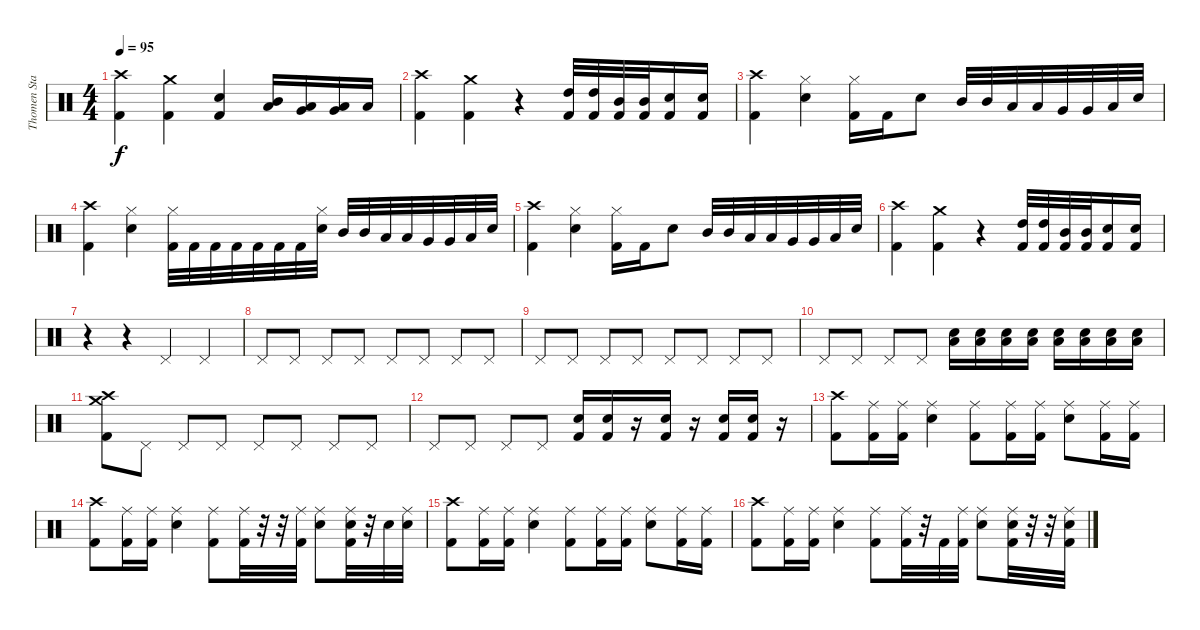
\track ("Thomen Stauch" "Thomen Sta") {instrument percussion}
\staff {score}
\articulation defaults
\ts (4 4)
\tempo 95
\clef neutral
\ks c
("Crash high (hit)" "Kick (hit) 2").4{dy f} ("Crash medium (hit)" "Kick (hit) 2").4 ("Snare (hit) 2" "Kick (hit) 2").4 ("Mid Tom (hit)" "Low Tom (hit)").16 ("Low Tom (hit)" "Very Low Tom (hit)").16 ("Very Low Tom (hit)" "Low Floor Tom (hit)").16 "Low Floor Tom (hit)".16 |
("Crash high (hit)" "Kick (hit) 2").4 ("Crash medium (hit)" "Kick (hit) 2").4 r.4 ("High Tom (hit)" "Kick (hit) 2").32 ("High Tom (hit)" "Kick (hit) 2").32 ("Mid Tom (hit)" "Kick (hit) 2").32 ("Mid Tom (hit)" "Kick (hit) 2").32 ("Snare (hit) 2" "Kick (hit) 2").16 ("Snare (hit) 2" "Kick (hit) 2").16 |
("Crash high (hit)" "Kick (hit) 2").4 ("Hi-Hat (closed)" "Snare (hit) 2").4 ("Hi-Hat (closed)" "Kick (hit) 2").16 "Kick (hit) 2".16 "Snare (hit) 2".8 "Mid Tom (hit)".32 "Mid Tom (hit)".32 "Low Tom (hit)".32 "Low Tom (hit)".32 "Very Low Tom (hit)".32 "Very Low Tom (hit)".32 "Low Floor Tom (hit)".32 "Snare (hit) 2".32 |
("Crash high (hit)" "Kick (hit) 2").4 ("Hi-Hat (closed)" "Snare (hit) 2").4 ("Hi-Hat (closed)" "Kick (hit) 2").32 "Kick (hit) 2".32 "Kick (hit) 2".32 "Kick (hit) 2".32 "Kick (hit) 2".32 "Kick (hit) 2".32 "Kick (hit) 2".32 ("Hi-Hat (closed)" "Snare (hit) 2").32 "Mid Tom (hit)".32 "Mid Tom (hit)".32 "Low Tom (hit)".32 "Low Tom (hit)".32 "Very Low Tom (hit)".32 "Very Low Tom (hit)".32 "Low Floor Tom (hit)".32 "Snare (hit) 2".32 |
("Crash high (hit)" "Kick (hit) 2").4 ("Hi-Hat (closed)" "Snare (hit) 2").4 ("Hi-Hat (closed)" "Kick (hit) 2").16 "Kick (hit) 2".16 "Snare (hit) 2".8 "Mid Tom (hit)".32 "Mid Tom (hit)".32 "Low Tom (hit)".32 "Low Tom (hit)".32 "Very Low Tom (hit)".32 "Very Low Tom (hit)".32 "Low Floor Tom (hit)".32 "Snare (hit) 2".32 |
("Crash high (hit)" "Kick (hit) 2").4 ("Crash medium (hit)" "Kick (hit) 2").4 r.4 ("High Tom (hit)" "Kick (hit) 2").32 ("High Tom (hit)" "Kick (hit) 2").32 ("Mid Tom (hit)" "Kick (hit) 2").32 ("Mid Tom (hit)" "Kick (hit) 2").32 ("Snare (hit) 2" "Kick (hit) 2").16 ("Snare (hit) 2" "Kick (hit) 2").16 |
r.4 r.4 "Pedal Hi-Hat (hit)".4 "Pedal Hi-Hat (hit)".4 |
"Pedal Hi-Hat (hit)".8 "Pedal Hi-Hat (hit)".8 "Pedal Hi-Hat (hit)".8 "Pedal Hi-Hat (hit)".8 "Pedal Hi-Hat (hit)".8 "Pedal Hi-Hat (hit)".8 "Pedal Hi-Hat (hit)".8 "Pedal Hi-Hat (hit)".8 |
"Pedal Hi-Hat (hit)".8 "Pedal Hi-Hat (hit)".8 "Pedal Hi-Hat (hit)".8 "Pedal Hi-Hat (hit)".8 "Pedal Hi-Hat (hit)".8 "Pedal Hi-Hat (hit)".8 "Pedal Hi-Hat (hit)".8 "Pedal Hi-Hat (hit)".8 |
"Pedal Hi-Hat (hit)".8 "Pedal Hi-Hat (hit)".8 "Pedal Hi-Hat (hit)".8 "Pedal Hi-Hat (hit)".8 ("Low Floor Tom (hit)" "Snare (hit) 2").16 ("Low Floor Tom (hit)" "Snare (hit) 2").16 ("Low Floor Tom (hit)" "Snare (hit) 2").16 ("Low Floor Tom (hit)" "Snare (hit) 2").16 ("Low Floor Tom (hit)" "Snare (hit) 2").16 ("Low Floor Tom (hit)" "Snare (hit) 2").16 ("Low Floor Tom (hit)" "Snare (hit) 2").16 ("Low Floor Tom (hit)" "Snare (hit) 2").16 |
("Crash high (hit)" "Crash medium (hit)" "Kick (hit) 2").8 "Pedal Hi-Hat (hit)".8 "Pedal Hi-Hat (hit)".8 "Pedal Hi-Hat (hit)".8 "Pedal Hi-Hat (hit)".8 "Pedal Hi-Hat (hit)".8 "Pedal Hi-Hat (hit)".8 "Pedal Hi-Hat (hit)".8 |
"Pedal Hi-Hat (hit)".8 "Pedal Hi-Hat (hit)".8 "Pedal Hi-Hat (hit)".8 "Pedal Hi-Hat (hit)".8 ("Snare (hit) 2" "Kick (hit) 2").16 ("Snare (hit) 2" "Kick (hit) 2").16 r.16 ("Snare (hit) 2" "Kick (hit) 2").16 r.16 ("Snare (hit) 2" "Kick (hit) 2").16 ("Snare (hit) 2" "Kick (hit) 2").16 r.16 |
("Crash high (hit)" "Kick (hit) 2").8 ("Ride (middle)" "Kick (hit) 2").16 ("Ride (middle)" "Kick (hit) 2").16 ("Ride (middle)" "Snare (hit) 2").4 ("Ride (middle)" "Kick (hit) 2").8 ("Ride (middle)" "Kick (hit) 2").16 ("Ride (middle)" "Kick (hit) 2").16 ("Ride (middle)" "Snare (hit) 2").8 ("Ride (middle)" "Kick (hit) 2").16 ("Ride (middle)" "Kick (hit) 2").16 |
("Crash high (hit)" "Kick (hit) 2").8 ("Ride (middle)" "Kick (hit) 2").16 ("Ride (middle)" "Kick (hit) 2").16 ("Ride (middle)" "Snare (hit) 2").4 ("Ride (middle)" "Kick (hit) 2").8 ("Ride (middle)" "Kick (hit) 2").32 r.32 r.32 ("Ride (middle)" "Kick (hit) 2").32 ("Ride (middle)" "Snare (hit) 2").8 ("Ride (middle)" "Snare (hit) 2" "Kick (hit) 2").32 r.32 "Snare (hit) 2".32 ("Ride (middle)" "Snare (hit) 2").32 |
("Crash high (hit)" "Kick (hit) 2").8 ("Ride (middle)" "Kick (hit) 2").16 ("Ride (middle)" "Kick (hit) 2").16 ("Ride (middle)" "Snare (hit) 2").4 ("Ride (middle)" "Kick (hit) 2").8 ("Ride (middle)" "Kick (hit) 2").16 ("Ride (middle)" "Kick (hit) 2").16 ("Ride (middle)" "Snare (hit) 2").8 ("Ride (middle)" "Kick (hit) 2").16 ("Ride (middle)" "Kick (hit) 2").16 |
("Crash high (hit)" "Kick (hit) 2").8 ("Ride (middle)" "Kick (hit) 2").16 ("Ride (middle)" "Kick (hit) 2").16 ("Ride (middle)" "Snare (hit) 2").4 ("Ride (middle)" "Kick (hit) 2").8 ("Ride (middle)" "Kick (hit) 2").32 r.32 "Kick (hit) 2".32 ("Ride (middle)" "Kick (hit) 2").32 ("Ride (middle)" "Snare (hit) 2").8 ("Ride (middle)" "Snare (hit) 2" "Kick (hit) 2").32 r.32 r.32 ("Ride (middle)" "Snare (hit) 2" "Kick (hit) 2").32
